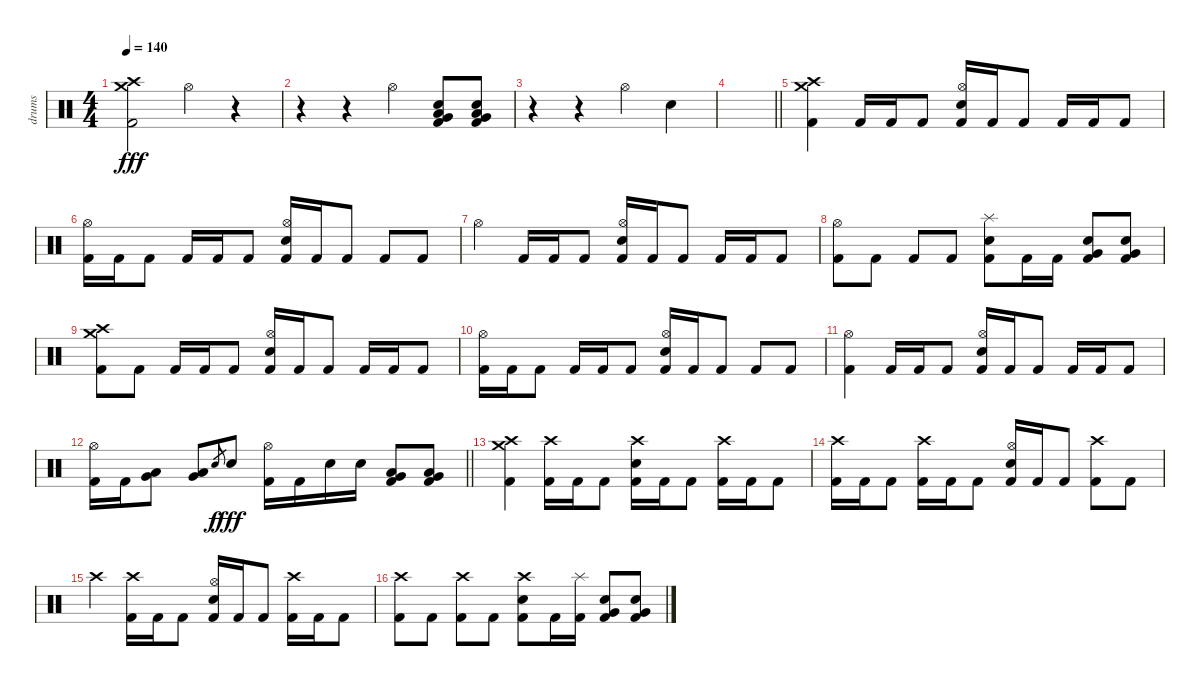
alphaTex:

\track ("drums" "drums") {instrument percussion}
\staff {score}
\articulation defaults
\ts (4 4)
\tempo 140
\clef neutral
\ks c
("Crash high (hit)" "Crash medium (hit)" "Kick (hit) 2").2{dy fff} "Hi-Hat (open)".4 r.4 |
r.4 r.4 "Hi-Hat (open)".4 ("Electric Snare (hit)" "Low Floor Tom (hit)" "Very Low Tom (hit)" "Kick (hit) 2").8 ("Electric Snare (hit)" "Low Floor Tom (hit)" "Very Low Tom (hit)" "Kick (hit) 2").8 |
r.4 r.4 "Hi-Hat (open)".4 "Electric Snare (hit)".4 |
\barLineRight lightlight
|
\section ("" "")
("Crash medium (hit)" "Crash high (hit)" "Kick (hit) 2").4 "Kick (hit) 2".16 "Kick (hit) 2".16 "Kick (hit) 2".8 ("Hi-Hat (open)" "Electric Snare (hit)" "Kick (hit) 2").16 "Kick (hit) 2".16 "Kick (hit) 2".8 "Kick (hit) 2".16 "Kick (hit) 2".16 "Kick (hit) 2".8 |
("Hi-Hat (open)" "Kick (hit) 2").16 "Kick (hit) 2".16 "Kick (hit) 2".8 "Kick (hit) 2".16 "Kick (hit) 2".16 "Kick (hit) 2".8 ("Hi-Hat (open)" "Electric Snare (hit)" "Kick (hit) 2").16 "Kick (hit) 2".16 "Kick (hit) 2".8 "Kick (hit) 2".8 "Kick (hit) 2".8 |
"Hi-Hat (open)".4 "Kick (hit) 2".16 "Kick (hit) 2".16 "Kick (hit) 2".8 ("Hi-Hat (open)" "Electric Snare (hit)" "Kick (hit) 2").16 "Kick (hit) 2".16 "Kick (hit) 2".8 "Kick (hit) 2".16 "Kick (hit) 2".16 "Kick (hit) 2".8 |
("Hi-Hat (open)" "Kick (hit) 2").8 "Kick (hit) 2".8 "Kick (hit) 2".8 "Kick (hit) 2".8 ("Splash (hit)" "Electric Snare (hit)" "Kick (hit) 2").8 "Kick (hit) 2".16 "Kick (hit) 2".16 ("Electric Snare (hit)" "Very Low Tom (hit)" "Kick (hit) 2").8 ("Electric Snare (hit)" "Very Low Tom (hit)" "Kick (hit) 2").8 |
("Crash medium (hit)" "Crash high (hit)" "Kick (hit) 2").8 "Kick (hit) 2".8 "Kick (hit) 2".16 "Kick (hit) 2".16 "Kick (hit) 2".8 ("Hi-Hat (open)" "Electric Snare (hit)" "Kick (hit) 2").16 "Kick (hit) 2".16 "Kick (hit) 2".8 "Kick (hit) 2".16 "Kick (hit) 2".16 "Kick (hit) 2".8 |
("Hi-Hat (open)" "Kick (hit) 2").16 "Kick (hit) 2".16 "Kick (hit) 2".8 "Kick (hit) 2".16 "Kick (hit) 2".16 "Kick (hit) 2".8 ("Hi-Hat (open)" "Electric Snare (hit)" "Kick (hit) 2").16 "Kick (hit) 2".16 "Kick (hit) 2".8 "Kick (hit) 2".8 "Kick (hit) 2".8 |
("Hi-Hat (open)" "Kick (hit) 2").4 "Kick (hit) 2".16 "Kick (hit) 2".16 "Kick (hit) 2".8 ("Hi-Hat (open)" "Electric Snare (hit)" "Kick (hit) 2").16 "Kick (hit) 2".16 "Kick (hit) 2".8 "Kick (hit) 2".16 "Kick (hit) 2".16 "Kick (hit) 2".8 |
\barLineRight lightlight
("Hi-Hat (open)" "Kick (hit) 2").16 "Kick (hit) 2".16 ("Low Tom (hit)" "Very Low Tom (hit)").8 ("Very Low Tom (hit)" "Low Floor Tom (hit)").8 "Electric Snare (hit)".8{gr dy f} "Electric Snare (hit)".8{dy fff} ("Hi-Hat (open)" "Kick (hit) 2").16 "Kick (hit) 2".16 "Electric Snare (hit)".16 "Electric Snare (hit)".16 ("Very Low Tom (hit)" "Low Floor Tom (hit)" "Kick (hit) 2").8 ("Very Low Tom (hit)" "Low Floor Tom (hit)" "Kick (hit) 2").8 |
("Crash medium (hit)" "Crash high (hit)" "Kick (hit) 2").4 ("Crash high (hit)" "Kick (hit) 2").16 "Kick (hit) 2".16 "Kick (hit) 2".8 ("Crash high (hit)" "Electric Snare (hit)" "Kick (hit) 2").16 "Kick (hit) 2".16 "Kick (hit) 2".8 ("Crash high (hit)" "Kick (hit) 2").16 "Kick (hit) 2".16 "Kick (hit) 2".8 |
("Crash high (hit)" "Kick (hit) 2").16 "Kick (hit) 2".16 "Kick (hit) 2".8 ("Crash high (hit)" "Kick (hit) 2").16 "Kick (hit) 2".16 "Kick (hit) 2".8 ("Hi-Hat (open)" "Electric Snare (hit)" "Kick (hit) 2").16 "Kick (hit) 2".16 "Kick (hit) 2".8 ("Crash high (hit)" "Kick (hit) 2").8 "Kick (hit) 2".8 |
"Crash high (hit)".4 ("Crash high (hit)" "Kick (hit) 2").16 "Kick (hit) 2".16 "Kick (hit) 2".8 ("Hi-Hat (open)" "Electric Snare (hit)" "Kick (hit) 2").16 "Kick (hit) 2".16 "Kick (hit) 2".8 ("Crash high (hit)" "Kick (hit) 2").16 "Kick (hit) 2".16 "Kick (hit) 2".8 |
("Crash high (hit)" "Kick (hit) 2").8 "Kick (hit) 2".8 ("Crash high (hit)" "Kick (hit) 2").8 "Kick (hit) 2".8 ("Crash high (hit)" "Electric Snare (hit)" "Kick (hit) 2").8 "Kick (hit) 2".16 ("Splash (hit)" "Kick (hit) 2").16 ("Electric Snare (hit)" "Very Low Tom (hit)" "Kick (hit) 2").8 ("Electric Snare (hit)" "Very Low Tom (hit)" "Kick (hit) 2").8
